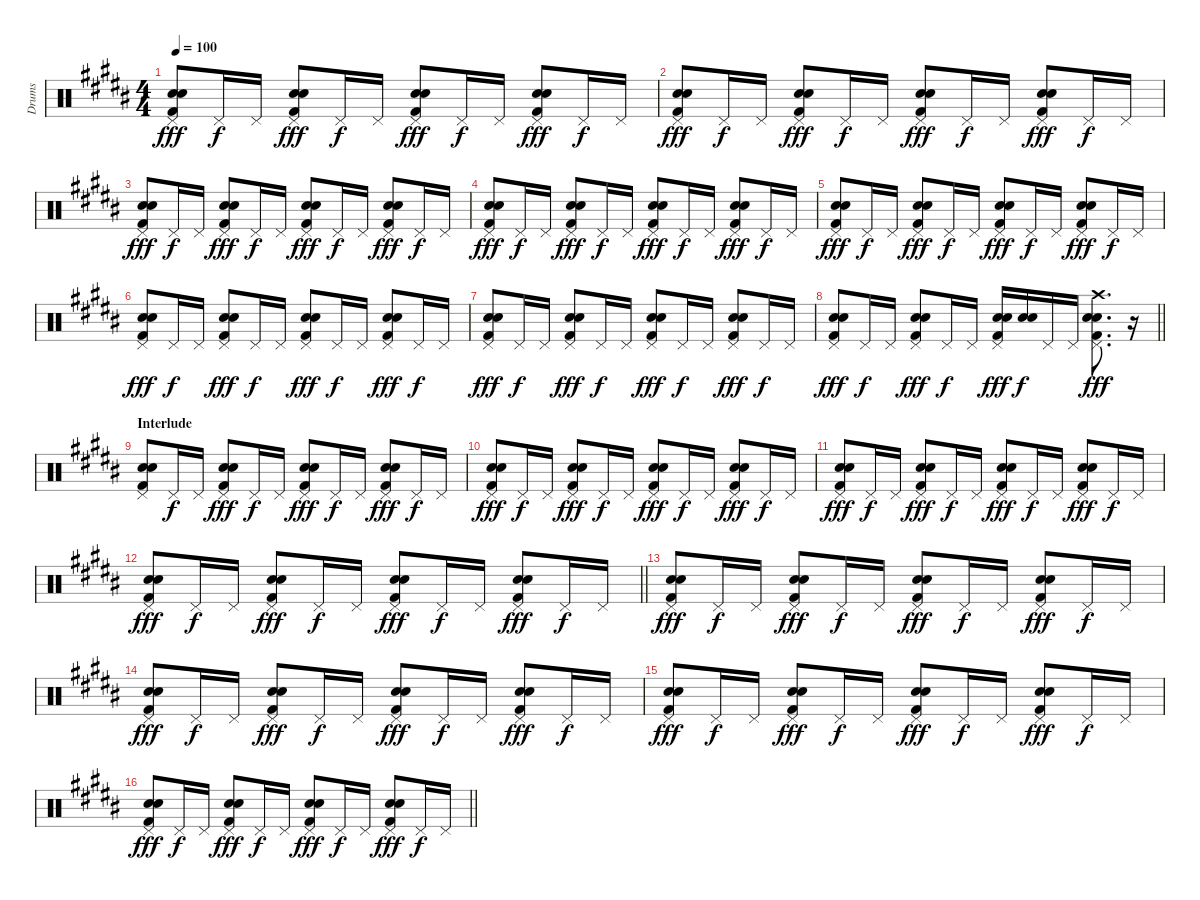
\track ("Drums" "Drums") {instrument percussion}
\staff {score}
\articulation defaults
\ts (4 4)
\tempo 100
\clef neutral
\ks b
("Pedal Hi-Hat (hit)" "Snare (hit) 2" "Electric Snare (hit)" "Kick (hit) 2").8{dy fff} "Pedal Hi-Hat (hit)".16{dy f} "Pedal Hi-Hat (hit)".16 ("Pedal Hi-Hat (hit)" "Snare (hit) 2" "Electric Snare (hit)" "Kick (hit) 2").8{dy fff} "Pedal Hi-Hat (hit)".16{dy f} "Pedal Hi-Hat (hit)".16 ("Pedal Hi-Hat (hit)" "Snare (hit) 2" "Electric Snare (hit)" "Kick (hit) 2").8{dy fff} "Pedal Hi-Hat (hit)".16{dy f} "Pedal Hi-Hat (hit)".16 ("Pedal Hi-Hat (hit)" "Snare (hit) 2" "Electric Snare (hit)" "Kick (hit) 2").8{dy fff} "Pedal Hi-Hat (hit)".16{dy f} "Pedal Hi-Hat (hit)".16 |
("Pedal Hi-Hat (hit)" "Snare (hit) 2" "Electric Snare (hit)" "Kick (hit) 2").8{dy fff} "Pedal Hi-Hat (hit)".16{dy f} "Pedal Hi-Hat (hit)".16 ("Pedal Hi-Hat (hit)" "Snare (hit) 2" "Electric Snare (hit)" "Kick (hit) 2").8{dy fff} "Pedal Hi-Hat (hit)".16{dy f} "Pedal Hi-Hat (hit)".16 ("Pedal Hi-Hat (hit)" "Snare (hit) 2" "Electric Snare (hit)" "Kick (hit) 2").8{dy fff} "Pedal Hi-Hat (hit)".16{dy f} "Pedal Hi-Hat (hit)".16 ("Pedal Hi-Hat (hit)" "Snare (hit) 2" "Electric Snare (hit)" "Kick (hit) 2").8{dy fff} "Pedal Hi-Hat (hit)".16{dy f} "Pedal Hi-Hat (hit)".16 |
("Pedal Hi-Hat (hit)" "Snare (hit) 2" "Electric Snare (hit)" "Kick (hit) 2").8{dy fff} "Pedal Hi-Hat (hit)".16{dy f} "Pedal Hi-Hat (hit)".16 ("Pedal Hi-Hat (hit)" "Snare (hit) 2" "Electric Snare (hit)" "Kick (hit) 2").8{dy fff} "Pedal Hi-Hat (hit)".16{dy f} "Pedal Hi-Hat (hit)".16 ("Pedal Hi-Hat (hit)" "Snare (hit) 2" "Electric Snare (hit)" "Kick (hit) 2").8{dy fff} "Pedal Hi-Hat (hit)".16{dy f} "Pedal Hi-Hat (hit)".16 ("Pedal Hi-Hat (hit)" "Snare (hit) 2" "Electric Snare (hit)" "Kick (hit) 2").8{dy fff} "Pedal Hi-Hat (hit)".16{dy f} "Pedal Hi-Hat (hit)".16 |
("Pedal Hi-Hat (hit)" "Snare (hit) 2" "Electric Snare (hit)" "Kick (hit) 2").8{dy fff} "Pedal Hi-Hat (hit)".16{dy f} "Pedal Hi-Hat (hit)".16 ("Pedal Hi-Hat (hit)" "Snare (hit) 2" "Electric Snare (hit)" "Kick (hit) 2").8{dy fff} "Pedal Hi-Hat (hit)".16{dy f} "Pedal Hi-Hat (hit)".16 ("Pedal Hi-Hat (hit)" "Snare (hit) 2" "Electric Snare (hit)" "Kick (hit) 2").8{dy fff} "Pedal Hi-Hat (hit)".16{dy f} "Pedal Hi-Hat (hit)".16 ("Pedal Hi-Hat (hit)" "Snare (hit) 2" "Electric Snare (hit)" "Kick (hit) 2").8{dy fff} "Pedal Hi-Hat (hit)".16{dy f} "Pedal Hi-Hat (hit)".16 |
("Pedal Hi-Hat (hit)" "Snare (hit) 2" "Electric Snare (hit)" "Kick (hit) 2").8{dy fff} "Pedal Hi-Hat (hit)".16{dy f} "Pedal Hi-Hat (hit)".16 ("Pedal Hi-Hat (hit)" "Snare (hit) 2" "Electric Snare (hit)" "Kick (hit) 2").8{dy fff} "Pedal Hi-Hat (hit)".16{dy f} "Pedal Hi-Hat (hit)".16 ("Pedal Hi-Hat (hit)" "Snare (hit) 2" "Electric Snare (hit)" "Kick (hit) 2").8{dy fff} "Pedal Hi-Hat (hit)".16{dy f} "Pedal Hi-Hat (hit)".16 ("Pedal Hi-Hat (hit)" "Snare (hit) 2" "Electric Snare (hit)" "Kick (hit) 2").8{dy fff} "Pedal Hi-Hat (hit)".16{dy f} "Pedal Hi-Hat (hit)".16 |
("Pedal Hi-Hat (hit)" "Snare (hit) 2" "Electric Snare (hit)" "Kick (hit) 2").8{dy fff} "Pedal Hi-Hat (hit)".16{dy f} "Pedal Hi-Hat (hit)".16 ("Pedal Hi-Hat (hit)" "Snare (hit) 2" "Electric Snare (hit)" "Kick (hit) 2").8{dy fff} "Pedal Hi-Hat (hit)".16{dy f} "Pedal Hi-Hat (hit)".16 ("Pedal Hi-Hat (hit)" "Snare (hit) 2" "Electric Snare (hit)" "Kick (hit) 2").8{dy fff} "Pedal Hi-Hat (hit)".16{dy f} "Pedal Hi-Hat (hit)".16 ("Pedal Hi-Hat (hit)" "Snare (hit) 2" "Electric Snare (hit)" "Kick (hit) 2").8{dy fff} "Pedal Hi-Hat (hit)".16{dy f} "Pedal Hi-Hat (hit)".16 |
("Pedal Hi-Hat (hit)" "Snare (hit) 2" "Electric Snare (hit)" "Kick (hit) 2").8{dy fff} "Pedal Hi-Hat (hit)".16{dy f} "Pedal Hi-Hat (hit)".16 ("Pedal Hi-Hat (hit)" "Snare (hit) 2" "Electric Snare (hit)" "Kick (hit) 2").8{dy fff} "Pedal Hi-Hat (hit)".16{dy f} "Pedal Hi-Hat (hit)".16 ("Pedal Hi-Hat (hit)" "Snare (hit) 2" "Electric Snare (hit)" "Kick (hit) 2").8{dy fff} "Pedal Hi-Hat (hit)".16{dy f} "Pedal Hi-Hat (hit)".16 ("Pedal Hi-Hat (hit)" "Snare (hit) 2" "Electric Snare (hit)" "Kick (hit) 2").8{dy fff} "Pedal Hi-Hat (hit)".16{dy f} "Pedal Hi-Hat (hit)".16 |
\barLineRight lightlight
("Pedal Hi-Hat (hit)" "Snare (hit) 2" "Electric Snare (hit)" "Kick (hit) 2").8{dy fff} "Pedal Hi-Hat (hit)".16{dy f} "Pedal Hi-Hat (hit)".16 ("Pedal Hi-Hat (hit)" "Snare (hit) 2" "Electric Snare (hit)" "Kick (hit) 2").8{dy fff} "Pedal Hi-Hat (hit)".16{dy f} "Pedal Hi-Hat (hit)".16 ("Pedal Hi-Hat (hit)" "Snare (hit) 2" "Electric Snare (hit)" "Kick (hit) 2").16{dy fff} ("Snare (hit) 2" "Electric Snare (hit)").16{dy f} "Pedal Hi-Hat (hit)".16 "Pedal Hi-Hat (hit)".16 ("Pedal Hi-Hat (hit)" "Snare (hit) 2" "Electric Snare (hit)" "Crash high (hit)" "Kick (hit) 2").8{d dy fff} r.16 |
\section ("" "Interlude")
("Pedal Hi-Hat (hit)" "Snare (hit) 2" "Electric Snare (hit)" "Kick (hit) 2").8 "Pedal Hi-Hat (hit)".16{dy f} "Pedal Hi-Hat (hit)".16 ("Pedal Hi-Hat (hit)" "Snare (hit) 2" "Electric Snare (hit)" "Kick (hit) 2").8{dy fff} "Pedal Hi-Hat (hit)".16{dy f} "Pedal Hi-Hat (hit)".16 ("Pedal Hi-Hat (hit)" "Snare (hit) 2" "Electric Snare (hit)" "Kick (hit) 2").8{dy fff} "Pedal Hi-Hat (hit)".16{dy f} "Pedal Hi-Hat (hit)".16 ("Pedal Hi-Hat (hit)" "Snare (hit) 2" "Electric Snare (hit)" "Kick (hit) 2").8{dy fff} "Pedal Hi-Hat (hit)".16{dy f} "Pedal Hi-Hat (hit)".16 |
("Pedal Hi-Hat (hit)" "Snare (hit) 2" "Electric Snare (hit)" "Kick (hit) 2").8{dy fff} "Pedal Hi-Hat (hit)".16{dy f} "Pedal Hi-Hat (hit)".16 ("Pedal Hi-Hat (hit)" "Snare (hit) 2" "Electric Snare (hit)" "Kick (hit) 2").8{dy fff} "Pedal Hi-Hat (hit)".16{dy f} "Pedal Hi-Hat (hit)".16 ("Pedal Hi-Hat (hit)" "Snare (hit) 2" "Electric Snare (hit)" "Kick (hit) 2").8{dy fff} "Pedal Hi-Hat (hit)".16{dy f} "Pedal Hi-Hat (hit)".16 ("Pedal Hi-Hat (hit)" "Snare (hit) 2" "Electric Snare (hit)" "Kick (hit) 2").8{dy fff} "Pedal Hi-Hat (hit)".16{dy f} "Pedal Hi-Hat (hit)".16 |
("Pedal Hi-Hat (hit)" "Snare (hit) 2" "Electric Snare (hit)" "Kick (hit) 2").8{dy fff} "Pedal Hi-Hat (hit)".16{dy f} "Pedal Hi-Hat (hit)".16 ("Pedal Hi-Hat (hit)" "Snare (hit) 2" "Electric Snare (hit)" "Kick (hit) 2").8{dy fff} "Pedal Hi-Hat (hit)".16{dy f} "Pedal Hi-Hat (hit)".16 ("Pedal Hi-Hat (hit)" "Snare (hit) 2" "Electric Snare (hit)" "Kick (hit) 2").8{dy fff} "Pedal Hi-Hat (hit)".16{dy f} "Pedal Hi-Hat (hit)".16 ("Pedal Hi-Hat (hit)" "Snare (hit) 2" "Electric Snare (hit)" "Kick (hit) 2").8{dy fff} "Pedal Hi-Hat (hit)".16{dy f} "Pedal Hi-Hat (hit)".16 |
\barLineRight lightlight
("Pedal Hi-Hat (hit)" "Snare (hit) 2" "Electric Snare (hit)" "Kick (hit) 2").8{dy fff} "Pedal Hi-Hat (hit)".16{dy f} "Pedal Hi-Hat (hit)".16 ("Pedal Hi-Hat (hit)" "Snare (hit) 2" "Electric Snare (hit)" "Kick (hit) 2").8{dy fff} "Pedal Hi-Hat (hit)".16{dy f} "Pedal Hi-Hat (hit)".16 ("Pedal Hi-Hat (hit)" "Snare (hit) 2" "Electric Snare (hit)" "Kick (hit) 2").8{dy fff} "Pedal Hi-Hat (hit)".16{dy f} "Pedal Hi-Hat (hit)".16 ("Pedal Hi-Hat (hit)" "Snare (hit) 2" "Electric Snare (hit)" "Kick (hit) 2").8{dy fff} "Pedal Hi-Hat (hit)".16{dy f} "Pedal Hi-Hat (hit)".16 |
("Pedal Hi-Hat (hit)" "Snare (hit) 2" "Electric Snare (hit)" "Kick (hit) 2").8{dy fff} "Pedal Hi-Hat (hit)".16{dy f} "Pedal Hi-Hat (hit)".16 ("Pedal Hi-Hat (hit)" "Snare (hit) 2" "Electric Snare (hit)" "Kick (hit) 2").8{dy fff} "Pedal Hi-Hat (hit)".16{dy f} "Pedal Hi-Hat (hit)".16 ("Pedal Hi-Hat (hit)" "Snare (hit) 2" "Electric Snare (hit)" "Kick (hit) 2").8{dy fff} "Pedal Hi-Hat (hit)".16{dy f} "Pedal Hi-Hat (hit)".16 ("Pedal Hi-Hat (hit)" "Snare (hit) 2" "Electric Snare (hit)" "Kick (hit) 2").8{dy fff} "Pedal Hi-Hat (hit)".16{dy f} "Pedal Hi-Hat (hit)".16 |
("Pedal Hi-Hat (hit)" "Snare (hit) 2" "Electric Snare (hit)" "Kick (hit) 2").8{dy fff} "Pedal Hi-Hat (hit)".16{dy f} "Pedal Hi-Hat (hit)".16 ("Pedal Hi-Hat (hit)" "Snare (hit) 2" "Electric Snare (hit)" "Kick (hit) 2").8{dy fff} "Pedal Hi-Hat (hit)".16{dy f} "Pedal Hi-Hat (hit)".16 ("Pedal Hi-Hat (hit)" "Snare (hit) 2" "Electric Snare (hit)" "Kick (hit) 2").8{dy fff} "Pedal Hi-Hat (hit)".16{dy f} "Pedal Hi-Hat (hit)".16 ("Pedal Hi-Hat (hit)" "Snare (hit) 2" "Electric Snare (hit)" "Kick (hit) 2").8{dy fff} "Pedal Hi-Hat (hit)".16{dy f} "Pedal Hi-Hat (hit)".16 |
("Pedal Hi-Hat (hit)" "Snare (hit) 2" "Electric Snare (hit)" "Kick (hit) 2").8{dy fff} "Pedal Hi-Hat (hit)".16{dy f} "Pedal Hi-Hat (hit)".16 ("Pedal Hi-Hat (hit)" "Snare (hit) 2" "Electric Snare (hit)" "Kick (hit) 2").8{dy fff} "Pedal Hi-Hat (hit)".16{dy f} "Pedal Hi-Hat (hit)".16 ("Pedal Hi-Hat (hit)" "Snare (hit) 2" "Electric Snare (hit)" "Kick (hit) 2").8{dy fff} "Pedal Hi-Hat (hit)".16{dy f} "Pedal Hi-Hat (hit)".16 ("Pedal Hi-Hat (hit)" "Snare (hit) 2" "Electric Snare (hit)" "Kick (hit) 2").8{dy fff} "Pedal Hi-Hat (hit)".16{dy f} "Pedal Hi-Hat (hit)".16 |
\barLineRight lightlight
("Pedal Hi-Hat (hit)" "Snare (hit) 2" "Electric Snare (hit)" "Kick (hit) 2").8{dy fff} "Pedal Hi-Hat (hit)".16{dy f} "Pedal Hi-Hat (hit)".16 ("Pedal Hi-Hat (hit)" "Snare (hit) 2" "Electric Snare (hit)" "Kick (hit) 2").8{dy fff} "Pedal Hi-Hat (hit)".16{dy f} "Pedal Hi-Hat (hit)".16 ("Pedal Hi-Hat (hit)" "Snare (hit) 2" "Electric Snare (hit)" "Kick (hit) 2").8{dy fff} "Pedal Hi-Hat (hit)".16{dy f} "Pedal Hi-Hat (hit)".16 ("Pedal Hi-Hat (hit)" "Snare (hit) 2" "Electric Snare (hit)" "Kick (hit) 2").8{dy fff} "Pedal Hi-Hat (hit)".16{dy f} "Pedal Hi-Hat (hit)".16
